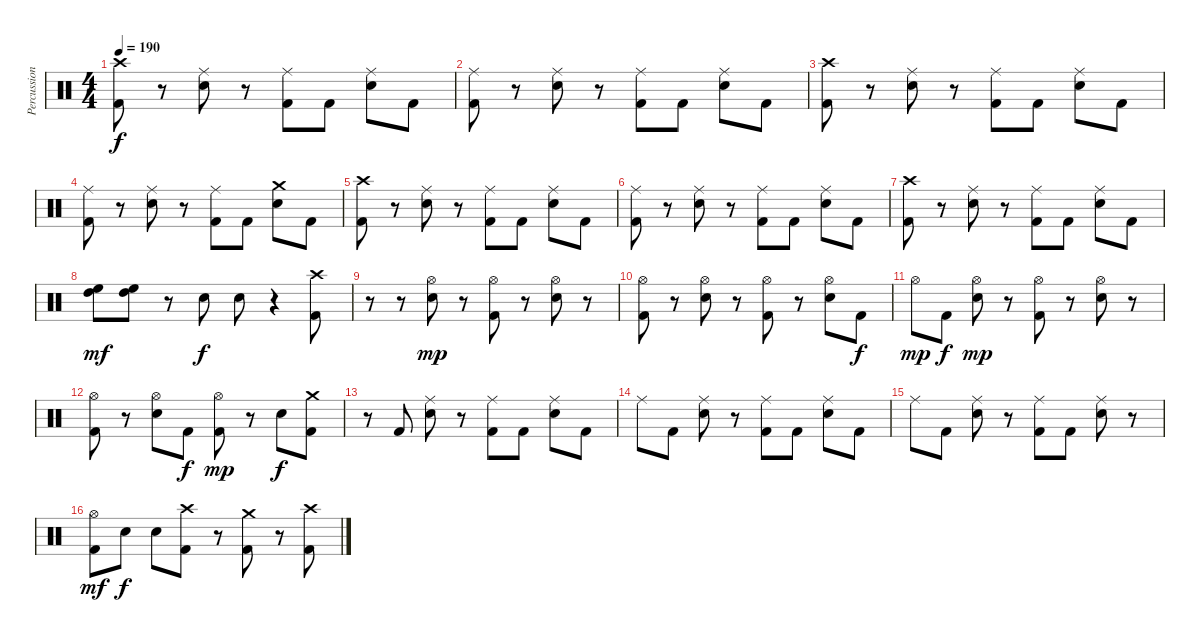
\track ("Percussion" "Percussion") {instrument percussion}
\staff {score}
\articulation defaults
\ts (4 4)
\tempo 190
\clef neutral
\ks c
("Crash high (hit)" "Kick (hit) 2").8{dy f} r.8 ("Ride (middle)" "Snare (hit) 2").8 r.8 ("Ride (middle)" "Kick (hit) 2").8 "Kick (hit) 2".8 ("Ride (middle)" "Snare (hit) 2").8 "Kick (hit) 2".8 |
("Ride (middle)" "Kick (hit) 2").8 r.8 ("Ride (middle)" "Snare (hit) 2").8 r.8 ("Ride (middle)" "Kick (hit) 2").8 "Kick (hit) 2".8 ("Ride (middle)" "Snare (hit) 2").8 "Kick (hit) 2".8 |
("Crash high (hit)" "Kick (hit) 2").8 r.8 ("Ride (middle)" "Snare (hit) 2").8 r.8 ("Ride (middle)" "Kick (hit) 2").8 "Kick (hit) 2".8 ("Ride (middle)" "Snare (hit) 2").8 "Kick (hit) 2".8 |
("Ride (middle)" "Kick (hit) 2").8 r.8 ("Ride (middle)" "Snare (hit) 2").8 r.8 ("Ride (middle)" "Kick (hit) 2").8 "Kick (hit) 2".8 ("Crash medium (hit)" "Snare (hit) 2").8 "Kick (hit) 2".8 |
("Crash high (hit)" "Kick (hit) 2").8 r.8 ("Ride (middle)" "Snare (hit) 2").8 r.8 ("Ride (middle)" "Kick (hit) 2").8 "Kick (hit) 2".8 ("Ride (middle)" "Snare (hit) 2").8 "Kick (hit) 2".8 |
("Ride (middle)" "Kick (hit) 2").8 r.8 ("Ride (middle)" "Snare (hit) 2").8 r.8 ("Ride (middle)" "Kick (hit) 2").8 "Kick (hit) 2".8 ("Ride (middle)" "Snare (hit) 2").8 "Kick (hit) 2".8 |
("Crash high (hit)" "Kick (hit) 2").8 r.8 ("Ride (middle)" "Snare (hit) 2").8 r.8 ("Ride (middle)" "Kick (hit) 2").8 "Kick (hit) 2".8 ("Ride (middle)" "Snare (hit) 2").8 "Kick (hit) 2".8 |
("High Floor Tom (hit)" "High Tom (hit)").8{dy mf} ("High Floor Tom (hit)" "High Tom (hit)").8 r.8 "Snare (hit) 2".8{dy f} "Snare (hit) 2".8 r.4 ("Crash high (hit)" "Kick (hit) 2").8 |
r.8 r.8 ("Hi-Hat (open)" "Snare (hit) 2").8{dy mp} r.8 ("Hi-Hat (open)" "Kick (hit) 2").8 r.8 ("Hi-Hat (open)" "Snare (hit) 2").8 r.8 |
("Hi-Hat (open)" "Kick (hit) 2").8 r.8 ("Hi-Hat (open)" "Snare (hit) 2").8 r.8 ("Hi-Hat (open)" "Kick (hit) 2").8 r.8 ("Hi-Hat (open)" "Snare (hit) 2").8 "Kick (hit) 2".8{dy f} |
"Hi-Hat (open)".8{dy mp} "Kick (hit) 2".8{dy f} ("Hi-Hat (open)" "Snare (hit) 2").8{dy mp} r.8 ("Hi-Hat (open)" "Kick (hit) 2").8 r.8 ("Hi-Hat (open)" "Snare (hit) 2").8 r.8 |
("Hi-Hat (open)" "Kick (hit) 2").8 r.8 ("Hi-Hat (open)" "Snare (hit) 2").8 "Kick (hit) 2".8{dy f} ("Hi-Hat (open)" "Kick (hit) 2").8{dy mp} r.8 "Snare (hit) 2".8{dy f} ("Crash medium (hit)" "Kick (hit) 2").8 |
r.8 "Kick (hit) 2".8 ("Ride (middle)" "Snare (hit) 2").8 r.8 ("Ride (middle)" "Kick (hit) 2").8 "Kick (hit) 2".8 ("Ride (middle)" "Snare (hit) 2").8 "Kick (hit) 2".8 |
"Ride (middle)".8 "Kick (hit) 2".8 ("Ride (middle)" "Snare (hit) 2").8 r.8 ("Ride (middle)" "Kick (hit) 2").8 "Kick (hit) 2".8 ("Ride (middle)" "Snare (hit) 2").8 "Kick (hit) 2".8 |
"Ride (middle)".8 "Kick (hit) 2".8 ("Ride (middle)" "Snare (hit) 2").8 r.8 ("Ride (middle)" "Kick (hit) 2").8 "Kick (hit) 2".8 ("Ride (middle)" "Snare (hit) 2").8 r.8 |
("Hi-Hat (open)" "Kick (hit) 2").8{dy mf} "Snare (hit) 2".8{dy f} "Snare (hit) 2".8 ("Crash high (hit)" "Kick (hit) 2").8 r.8 ("Crash medium (hit)" "Kick (hit) 2").8 r.8 ("Crash high (hit)" "Kick (hit) 2").8
